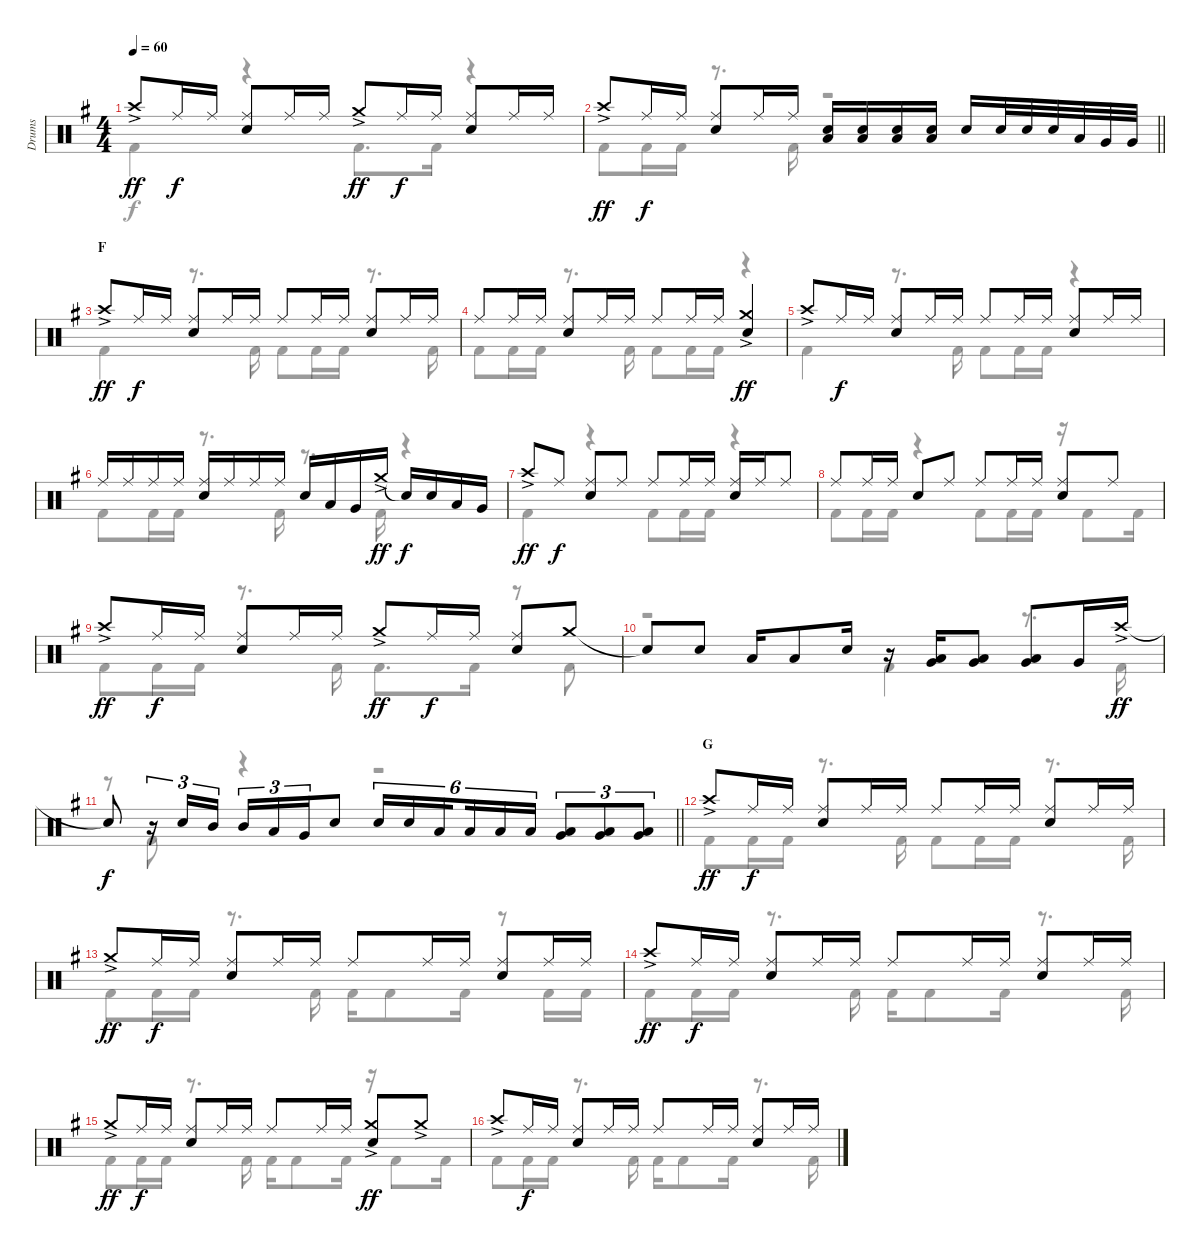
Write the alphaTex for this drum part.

\track ("Drums" "Drums") {instrument percussion}
\staff {score}
\articulation defaults
\voice
\ts (4 4)
\tempo 60
\clef neutral
\ks g "Crash high (hit)"{ac}.8{dy ff} "Ride (middle)".16{dy f} "Ride (middle)".16
("Ride (middle)" "Snare (hit) 2").8 "Ride (middle)".16 "Ride (middle)".16 "Crash medium (hit)"{ac}.8{dy ff} "Ride (middle)".16{dy f} "Ride (middle)".16 ("Ride (middle)" "Snare (hit) 2").8 "Ride (middle)".16 "Ride (middle)".16 |
\barLineRight lightlight "Crash high (hit)"{ac}.8{dy ff} "Ride (middle)".16{dy f} "Ride (middle)".16
("Ride (middle)" "Snare (hit) 2").8 "Ride (middle)".16 "Ride (middle)".16 ("Low Tom (hit)" "Snare (hit) 2").16 ("Low Tom (hit)" "Snare (hit) 2").16 ("Low Tom (hit)" "Snare (hit) 2").16 ("Low Tom (hit)" "Snare (hit) 2").16 "Snare (hit) 2".16 "Snare (hit) 2".32 "Snare (hit) 2".32 "Snare (hit) 2".32 "Low Tom (hit)".32 "Very Low Tom (hit)".32 "Very Low Tom (hit)".32 |
\section ("" "F")
"Crash high (hit)"{ac}.8{dy ff} "Ride (middle)".16{dy f} "Ride (middle)".16 ("Ride (middle)" "Snare (hit) 2").8 "Ride (middle)".16 "Ride (middle)".16 "Ride (middle)".8 "Ride (middle)".16 "Ride (middle)".16 ("Ride (middle)" "Snare (hit) 2").8 "Ride (middle)".16 "Ride (middle)".16 |
"Ride (middle)".8 "Ride (middle)".16 "Ride (middle)".16 ("Ride (middle)" "Snare (hit) 2").8 "Ride (middle)".16 "Ride (middle)".16 "Ride (middle)".8 "Ride (middle)".16 "Ride (middle)".16 ("Crash medium (hit)"{ac} "Snare (hit) 2").4{dy ff} |
"Crash high (hit)"{ac}.8 "Ride (middle)".16{dy f} "Ride (middle)".16 ("Ride (middle)" "Snare (hit) 2").8 "Ride (middle)".16 "Ride (middle)".16 "Ride (middle)".8 "Ride (middle)".16 "Ride (middle)".16 ("Ride (middle)" "Snare (hit) 2").8 "Ride (middle)".16 "Ride (middle)".16 |
"Ride (middle)".16 "Ride (middle)".16 "Ride (middle)".16 "Ride (middle)".16 ("Ride (middle)" "Snare (hit) 2").16 "Ride (middle)".16 "Ride (middle)".16 "Ride (middle)".16 "Snare (hit) 2".16 "Low Tom (hit)".16 "Very Low Tom (hit)".16 "Crash medium (hit)"{ac}.16{dy ff} "Snare (hit)"{t}.16{dy f} "Snare (hit) 2".16 "Low Tom (hit)".16 "Very Low Tom (hit)".16 |
"Crash high (hit)"{ac}.8{dy ff} "Ride (middle)".8{dy f} ("Ride (middle)" "Snare (hit) 2").8 "Ride (middle)".8 "Ride (middle)".8 "Ride (middle)".16 "Ride (middle)".16 ("Ride (middle)" "Snare (hit) 2").16 "Ride (middle)".16 "Ride (middle)".8 |
"Ride (middle)".8 "Ride (middle)".16 "Ride (middle)".16 "Snare (hit) 2".8 "Ride (middle)".8 "Ride (middle)".8 "Ride (middle)".16 "Ride (middle)".16 ("Ride (middle)" "Snare (hit) 2").8 "Ride (middle)".8 |
"Crash high (hit)"{ac}.8{dy ff} "Ride (middle)".16{dy f} "Ride (middle)".16 ("Ride (middle)" "Snare (hit) 2").8 "Ride (middle)".16 "Ride (middle)".16 "Crash medium (hit)"{ac}.8{dy ff} "Ride (middle)".16{dy f} "Ride (middle)".16 ("Ride (middle)" "Snare (hit) 2").8 "Crash medium (hit)".8 |
"Snare (hit)"{t}.8 "Snare (hit) 2".8 "Low Tom (hit)".16 "Low Tom (hit)".8 "Snare (hit) 2".16 r.16 ("Low Tom (hit)" "Very Low Tom (hit)").16 ("Low Tom (hit)" "Very Low Tom (hit)").8 ("Low Tom (hit)" "Very Low Tom (hit)").8 "Very Low Tom (hit)".16 "Crash high (hit)"{ac}.16{dy ff} |
\barLineRight lightlight "Snare (hit)"{t}.8{dy f}
r.16{tu (3 2)} "Snare (hit) 2".16{tu (3 2) beam merge} "Mid Tom (hit)".16{tu (3 2) beam split} "Mid Tom (hit)".16{tu (3 2)} "Low Tom (hit)".16{tu (3 2)} "Very Low Tom (hit)".16{tu (3 2) beam merge} "Snare (hit) 2".8{beam split} "Snare (hit) 2".16{tu (6 4)} "Snare (hit) 2".16{tu (6 4)} "Low Tom (hit)".16{tu (6 4) beam splitsecondary} "Low Tom (hit)".16{tu (6 4)} "Low Tom (hit)".16{tu (6 4) beam merge} "Low Tom (hit)".16{tu (6 4) beam split} ("Low Tom (hit)" "Very Low Tom (hit)").8{tu (3 2)} ("Low Tom (hit)" "Very Low Tom (hit)").8{tu (3 2)} ("Low Tom (hit)" "Very Low Tom (hit)").8{tu (3 2)} |
\section ("" "G")
"Crash high (hit)"{ac}.8{dy ff} "Ride (middle)".16{dy f} "Ride (middle)".16 ("Ride (middle)" "Snare (hit) 2").8 "Ride (middle)".16 "Ride (middle)".16 "Ride (middle)".8 "Ride (middle)".16 "Ride (middle)".16 ("Ride (middle)" "Snare (hit) 2").8 "Ride (middle)".16 "Ride (middle)".16 |
"Crash medium (hit)"{ac}.8{dy ff} "Ride (middle)".16{dy f} "Ride (middle)".16 ("Ride (middle)" "Snare (hit) 2").8 "Ride (middle)".16 "Ride (middle)".16 "Ride (middle)".8 "Ride (middle)".16 "Ride (middle)".16 ("Ride (middle)" "Snare (hit) 2").8 "Ride (middle)".16 "Ride (middle)".16 |
"Crash high (hit)"{ac}.8{dy ff} "Ride (middle)".16{dy f} "Ride (middle)".16 ("Ride (middle)" "Snare (hit) 2").8 "Ride (middle)".16 "Ride (middle)".16 "Ride (middle)".8 "Ride (middle)".16 "Ride (middle)".16 ("Ride (middle)" "Snare (hit) 2").8 "Ride (middle)".16 "Ride (middle)".16 |
"Crash medium (hit)"{ac}.8{dy ff} "Ride (middle)".16{dy f} "Ride (middle)".16 ("Ride (middle)" "Snare (hit) 2").8 "Ride (middle)".16 "Ride (middle)".16 "Ride (middle)".8 "Ride (middle)".16 "Ride (middle)".16 ("Crash medium (hit)"{ac} "Snare (hit) 2").8{dy ff} "Crash medium (hit)"{ac}.8 |
"Crash high (hit)"{ac}.8 "Ride (middle)".16{dy f} "Ride (middle)".16 ("Ride (middle)" "Snare (hit) 2").8 "Ride (middle)".16 "Ride (middle)".16 "Ride (middle)".8 "Ride (middle)".16 "Ride (middle)".16 ("Ride (middle)" "Snare (hit) 2").8 "Ride (middle)".16 "Ride (middle)".16
\voice
\clef neutral
\ottava regular
\simile none
\ks g "Kick (hit) 2".4{dy f}
r.4 "Kick (hit) 2".8{d} "Kick (hit) 2".16 r.4 |
\barLineRight lightlight "Kick (hit) 2".8 "Kick (hit) 2".16 "Kick (hit) 2".16
r.8{d} "Kick (hit) 2".16 r.2 |
"Kick (hit) 2".4 r.8{d} "Kick (hit) 2".16 "Kick (hit) 2".8 "Kick (hit) 2".16 "Kick (hit) 2".16 r.8{d} "Kick (hit) 2".16 |
"Kick (hit) 2".8 "Kick (hit) 2".16 "Kick (hit) 2".16 r.8{d} "Kick (hit) 2".16 "Kick (hit) 2".8 "Kick (hit) 2".16 "Kick (hit) 2".16 r.4 |
"Kick (hit) 2".4 r.8{d} "Kick (hit) 2".16 "Kick (hit) 2".8 "Kick (hit) 2".16 "Kick (hit) 2".16 r.4 |
"Kick (hit) 2".8 "Kick (hit) 2".16 "Kick (hit) 2".16 r.8{d} "Kick (hit) 2".16 r.8{d} "Kick (hit) 2".16 r.4 |
"Kick (hit) 2".4 r.4 "Kick (hit) 2".8 "Kick (hit) 2".16 "Kick (hit) 2".16 r.4 |
"Kick (hit) 2".8 "Kick (hit) 2".16 "Kick (hit) 2".16 r.4 "Kick (hit) 2".8 "Kick (hit) 2".16 "Kick (hit) 2".16 r.16 "Kick (hit) 2".8 "Kick (hit) 2".16 |
"Kick (hit) 2".8 "Kick (hit) 2".16 "Kick (hit) 2".16 r.8{d} "Kick (hit) 2".16 "Kick (hit) 2".8{d} "Kick (hit) 2".16 r.8 "Kick (hit) 2".8 |
r.2 "Kick (hit) 2".4 r.8{d} "Kick (hit) 2".16 |
\barLineRight lightlight
r.8 "Kick (hit) 2".8 r.4 r.2 |
"Kick (hit) 2".8 "Kick (hit) 2".16 "Kick (hit) 2".16 r.8{d} "Kick (hit) 2".16 "Kick (hit) 2".8 "Kick (hit) 2".16 "Kick (hit) 2".16 r.8{d} "Kick (hit) 2".16 |
"Kick (hit) 2".8 "Kick (hit) 2".16 "Kick (hit) 2".16 r.8{d} "Kick (hit) 2".16 "Kick (hit) 2".16 "Kick (hit) 2".8 "Kick (hit) 2".16 r.8 "Kick (hit) 2".16 "Kick (hit) 2".16 |
"Kick (hit) 2".8 "Kick (hit) 2".16 "Kick (hit) 2".16 r.8{d} "Kick (hit) 2".16 "Kick (hit) 2".16 "Kick (hit) 2".8 "Kick (hit) 2".16 r.8{d} "Kick (hit) 2".16 |
"Kick (hit) 2".8 "Kick (hit) 2".16 "Kick (hit) 2".16 r.8{d} "Kick (hit) 2".16 "Kick (hit) 2".16 "Kick (hit) 2".8 "Kick (hit) 2".16 r.16 "Kick (hit) 2".8 "Kick (hit) 2".16 |
"Kick (hit) 2".8 "Kick (hit) 2".16 "Kick (hit) 2".16 r.8{d} "Kick (hit) 2".16 "Kick (hit) 2".16 "Kick (hit) 2".8 "Kick (hit) 2".16 r.8{d} "Kick (hit) 2".16
